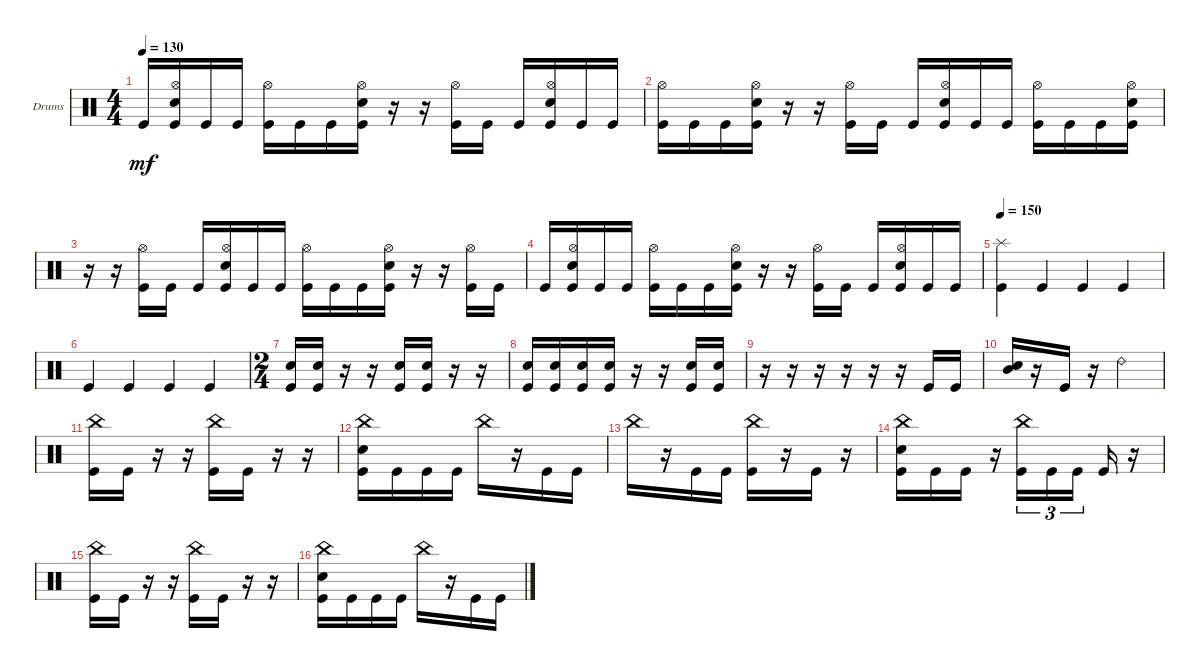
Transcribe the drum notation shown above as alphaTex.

\bracketExtendMode groupsimilarinstruments
\firstSystemTrackNameOrientation horizontal
\otherSystemsTrackNameOrientation horizontal
\track ("Drumkit" "Drums") {instrument percussion}
\staff {score}
\articulation defaults
\ts (4 4)
\tempo 130
\clef neutral
\ks c "Kick (hit)".16{dy mf}
("Hi-Hat (open)" "Snare (hit) 2" "Kick (hit)").16 "Kick (hit)".16 "Kick (hit)".16 ("Hi-Hat (open)" "Kick (hit)").16 "Kick (hit)".16 "Kick (hit)".16 ("Hi-Hat (open)" "Snare (hit) 2" "Kick (hit)").16 r.16 r.16 ("Hi-Hat (open)" "Kick (hit)").16 "Kick (hit)".16 "Kick (hit)".16 ("Hi-Hat (open)" "Snare (hit) 2" "Kick (hit)").16 "Kick (hit)".16 "Kick (hit)".16 |
("Kick (hit)" "Hi-Hat (open)").16 "Kick (hit)".16 "Kick (hit)".16 ("Kick (hit)" "Hi-Hat (open)" "Snare (hit) 2").16 r.16 r.16 ("Hi-Hat (open)" "Kick (hit)").16 "Kick (hit)".16 "Kick (hit)".16 ("Hi-Hat (open)" "Snare (hit) 2" "Kick (hit)").16 "Kick (hit)".16 "Kick (hit)".16 ("Hi-Hat (open)" "Kick (hit)").16 "Kick (hit)".16 "Kick (hit)".16 ("Hi-Hat (open)" "Snare (hit) 2" "Kick (hit)").16 |
r.16 r.16 ("Hi-Hat (open)" "Kick (hit)").16 "Kick (hit)".16 "Kick (hit)".16 ("Hi-Hat (open)" "Snare (hit) 2" "Kick (hit)").16 "Kick (hit)".16 "Kick (hit)".16 ("Hi-Hat (open)" "Kick (hit)").16 "Kick (hit)".16 "Kick (hit)".16 ("Hi-Hat (open)" "Snare (hit) 2" "Kick (hit)").16 r.16 r.16 ("Hi-Hat (open)" "Kick (hit)").16 "Kick (hit)".16 |
"Kick (hit)".16 ("Hi-Hat (open)" "Snare (hit) 2" "Kick (hit)").16 "Kick (hit)".16 "Kick (hit)".16 ("Hi-Hat (open)" "Kick (hit)").16 "Kick (hit)".16 "Kick (hit)".16 ("Hi-Hat (open)" "Snare (hit) 2" "Kick (hit)").16 r.16 r.16 ("Hi-Hat (open)" "Kick (hit)").16 "Kick (hit)".16 "Kick (hit)".16 ("Hi-Hat (open)" "Snare (hit) 2" "Kick (hit)").16 "Kick (hit)".16 "Kick (hit)".16 |
\tempo 150
("Kick (hit)" "Splash (hit)").4 "Kick (hit)".4 "Kick (hit)".4 "Kick (hit)".4 |
"Kick (hit)".4 "Kick (hit)".4 "Kick (hit)".4 "Kick (hit)".4 |
\ts (2 4)
("Kick (hit)" "Snare (hit) 2").16 ("Kick (hit)" "Snare (hit) 2").16 r.16 r.16 ("Kick (hit)" "Snare (hit) 2").16 ("Kick (hit)" "Snare (hit) 2").16 r.16 r.16 |
("Kick (hit)" "Snare (hit) 2").16 ("Kick (hit)" "Snare (hit) 2").16 ("Kick (hit)" "Snare (hit) 2").16 ("Kick (hit)" "Snare (hit) 2").16 r.16 r.16 ("Kick (hit)" "Snare (hit) 2").16 ("Kick (hit)" "Snare (hit) 2").16 |
r.16 r.16 r.16 r.16 r.16 r.16 "Kick (hit)".16 "Kick (hit)".16 |
("Mid Tom (hit)" "Snare (hit) 2").16 r.16 "Kick (hit)".16 r.16 "Ride (bell) 2".4 |
("Kick (hit)" "China (hit)").16 "Kick (hit)".16 r.16 r.16 ("Kick (hit)" "China (hit)").16 "Kick (hit)".16 r.16 r.16 |
("Kick (hit)" "China (hit)" "Snare (hit) 2").16 "Kick (hit)".16 "Kick (hit)".16 "Kick (hit)".16 "China (hit)".16 r.16 "Kick (hit)".16 "Kick (hit)".16 |
"China (hit)".16 r.16 "Kick (hit)".16 "Kick (hit)".16 ("Kick (hit)" "China (hit)").16 r.16 "Kick (hit)".16 r.16 |
("Kick (hit)" "China (hit)" "Snare (hit) 2").16 "Kick (hit)".16 "Kick (hit)".16 r.16 ("Kick (hit)" "China (hit)").16{tu (3 2)} "Kick (hit)".16{tu (3 2)} "Kick (hit)".16{tu (3 2)} "Kick (hit)".16 r.16 |
("Kick (hit)" "China (hit)").16 "Kick (hit)".16 r.16 r.16 ("Kick (hit)" "China (hit)").16 "Kick (hit)".16 r.16 r.16 |
("Kick (hit)" "China (hit)" "Snare (hit) 2").16 "Kick (hit)".16 "Kick (hit)".16 "Kick (hit)".16 "China (hit)".16 r.16 "Kick (hit)".16 "Kick (hit)".16
